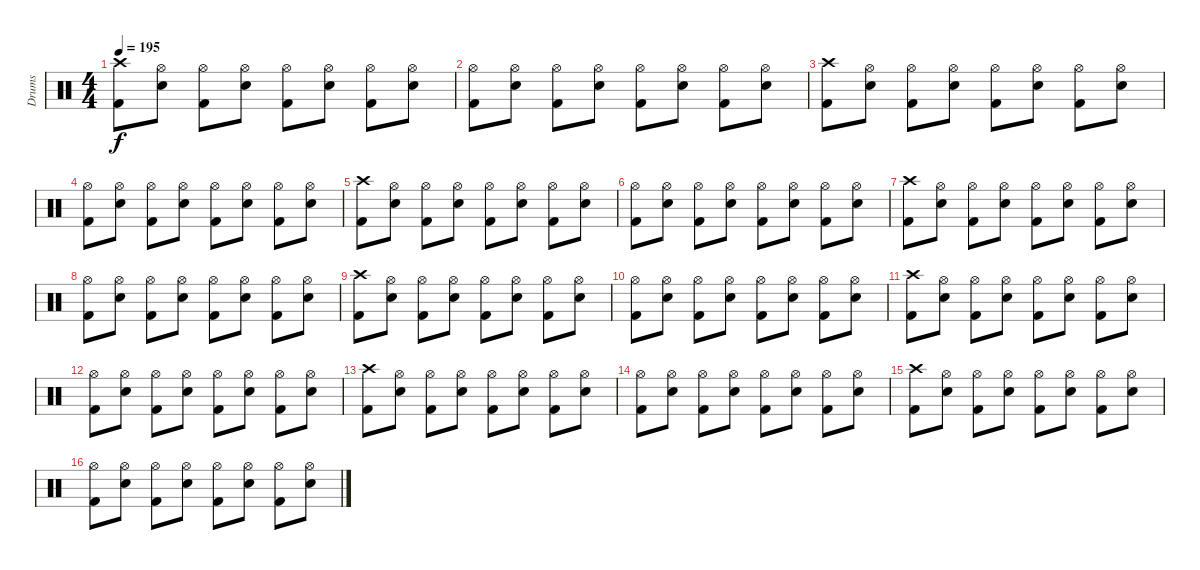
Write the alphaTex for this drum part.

\track ("Drums" "Drums") {instrument percussion}
\staff {score}
\articulation defaults
\ts (4 4)
\tempo 195
\clef neutral
\ks c
("Crash high (hit)" "Kick (hit) 2").8{dy f} ("Hi-Hat (open)" "Snare (hit) 2").8 ("Hi-Hat (open)" "Kick (hit) 2").8 ("Hi-Hat (open)" "Snare (hit) 2").8 ("Hi-Hat (open)" "Kick (hit) 2").8 ("Hi-Hat (open)" "Snare (hit) 2").8 ("Hi-Hat (open)" "Kick (hit) 2").8 ("Hi-Hat (open)" "Snare (hit) 2").8 |
("Hi-Hat (open)" "Kick (hit) 2").8 ("Hi-Hat (open)" "Snare (hit) 2").8 ("Hi-Hat (open)" "Kick (hit) 2").8 ("Hi-Hat (open)" "Snare (hit) 2").8 ("Hi-Hat (open)" "Kick (hit) 2").8 ("Hi-Hat (open)" "Snare (hit) 2").8 ("Hi-Hat (open)" "Kick (hit) 2").8 ("Hi-Hat (open)" "Snare (hit) 2").8 |
("Crash high (hit)" "Kick (hit) 2").8 ("Hi-Hat (open)" "Snare (hit) 2").8 ("Hi-Hat (open)" "Kick (hit) 2").8 ("Hi-Hat (open)" "Snare (hit) 2").8 ("Hi-Hat (open)" "Kick (hit) 2").8 ("Hi-Hat (open)" "Snare (hit) 2").8 ("Hi-Hat (open)" "Kick (hit) 2").8 ("Hi-Hat (open)" "Snare (hit) 2").8 |
("Hi-Hat (open)" "Kick (hit) 2").8 ("Hi-Hat (open)" "Snare (hit) 2").8 ("Hi-Hat (open)" "Kick (hit) 2").8 ("Hi-Hat (open)" "Snare (hit) 2").8 ("Hi-Hat (open)" "Kick (hit) 2").8 ("Hi-Hat (open)" "Snare (hit) 2").8 ("Hi-Hat (open)" "Kick (hit) 2").8 ("Hi-Hat (open)" "Snare (hit) 2").8 |
("Crash high (hit)" "Kick (hit) 2").8 ("Hi-Hat (open)" "Snare (hit) 2").8 ("Hi-Hat (open)" "Kick (hit) 2").8 ("Hi-Hat (open)" "Snare (hit) 2").8 ("Hi-Hat (open)" "Kick (hit) 2").8 ("Hi-Hat (open)" "Snare (hit) 2").8 ("Hi-Hat (open)" "Kick (hit) 2").8 ("Hi-Hat (open)" "Snare (hit) 2").8 |
("Hi-Hat (open)" "Kick (hit) 2").8 ("Hi-Hat (open)" "Snare (hit) 2").8 ("Hi-Hat (open)" "Kick (hit) 2").8 ("Hi-Hat (open)" "Snare (hit) 2").8 ("Hi-Hat (open)" "Kick (hit) 2").8 ("Hi-Hat (open)" "Snare (hit) 2").8 ("Hi-Hat (open)" "Kick (hit) 2").8 ("Hi-Hat (open)" "Snare (hit) 2").8 |
("Crash high (hit)" "Kick (hit) 2").8 ("Hi-Hat (open)" "Snare (hit) 2").8 ("Hi-Hat (open)" "Kick (hit) 2").8 ("Hi-Hat (open)" "Snare (hit) 2").8 ("Hi-Hat (open)" "Kick (hit) 2").8 ("Hi-Hat (open)" "Snare (hit) 2").8 ("Hi-Hat (open)" "Kick (hit) 2").8 ("Hi-Hat (open)" "Snare (hit) 2").8 |
("Hi-Hat (open)" "Kick (hit) 2").8 ("Hi-Hat (open)" "Snare (hit) 2").8 ("Hi-Hat (open)" "Kick (hit) 2").8 ("Hi-Hat (open)" "Snare (hit) 2").8 ("Hi-Hat (open)" "Kick (hit) 2").8 ("Hi-Hat (open)" "Snare (hit) 2").8 ("Hi-Hat (open)" "Kick (hit) 2").8 ("Hi-Hat (open)" "Snare (hit) 2").8 |
("Crash high (hit)" "Kick (hit) 2").8 ("Hi-Hat (open)" "Snare (hit) 2").8 ("Hi-Hat (open)" "Kick (hit) 2").8 ("Hi-Hat (open)" "Snare (hit) 2").8 ("Hi-Hat (open)" "Kick (hit) 2").8 ("Hi-Hat (open)" "Snare (hit) 2").8 ("Hi-Hat (open)" "Kick (hit) 2").8 ("Hi-Hat (open)" "Snare (hit) 2").8 |
("Hi-Hat (open)" "Kick (hit) 2").8 ("Hi-Hat (open)" "Snare (hit) 2").8 ("Hi-Hat (open)" "Kick (hit) 2").8 ("Hi-Hat (open)" "Snare (hit) 2").8 ("Hi-Hat (open)" "Kick (hit) 2").8 ("Hi-Hat (open)" "Snare (hit) 2").8 ("Hi-Hat (open)" "Kick (hit) 2").8 ("Hi-Hat (open)" "Snare (hit) 2").8 |
("Crash high (hit)" "Kick (hit) 2").8 ("Hi-Hat (open)" "Snare (hit) 2").8 ("Hi-Hat (open)" "Kick (hit) 2").8 ("Hi-Hat (open)" "Snare (hit) 2").8 ("Hi-Hat (open)" "Kick (hit) 2").8 ("Hi-Hat (open)" "Snare (hit) 2").8 ("Hi-Hat (open)" "Kick (hit) 2").8 ("Hi-Hat (open)" "Snare (hit) 2").8 |
("Hi-Hat (open)" "Kick (hit) 2").8 ("Hi-Hat (open)" "Snare (hit) 2").8 ("Hi-Hat (open)" "Kick (hit) 2").8 ("Hi-Hat (open)" "Snare (hit) 2").8 ("Hi-Hat (open)" "Kick (hit) 2").8 ("Hi-Hat (open)" "Snare (hit) 2").8 ("Hi-Hat (open)" "Kick (hit) 2").8 ("Hi-Hat (open)" "Snare (hit) 2").8 |
("Crash high (hit)" "Kick (hit) 2").8 ("Hi-Hat (open)" "Snare (hit) 2").8 ("Hi-Hat (open)" "Kick (hit) 2").8 ("Hi-Hat (open)" "Snare (hit) 2").8 ("Hi-Hat (open)" "Kick (hit) 2").8 ("Hi-Hat (open)" "Snare (hit) 2").8 ("Hi-Hat (open)" "Kick (hit) 2").8 ("Hi-Hat (open)" "Snare (hit) 2").8 |
("Hi-Hat (open)" "Kick (hit) 2").8 ("Hi-Hat (open)" "Snare (hit) 2").8 ("Hi-Hat (open)" "Kick (hit) 2").8 ("Hi-Hat (open)" "Snare (hit) 2").8 ("Hi-Hat (open)" "Kick (hit) 2").8 ("Hi-Hat (open)" "Snare (hit) 2").8 ("Hi-Hat (open)" "Kick (hit) 2").8 ("Hi-Hat (open)" "Snare (hit) 2").8 |
("Crash high (hit)" "Kick (hit) 2").8 ("Hi-Hat (open)" "Snare (hit) 2").8 ("Hi-Hat (open)" "Kick (hit) 2").8 ("Hi-Hat (open)" "Snare (hit) 2").8 ("Hi-Hat (open)" "Kick (hit) 2").8 ("Hi-Hat (open)" "Snare (hit) 2").8 ("Hi-Hat (open)" "Kick (hit) 2").8 ("Hi-Hat (open)" "Snare (hit) 2").8 |
("Hi-Hat (open)" "Kick (hit) 2").8 ("Hi-Hat (open)" "Snare (hit) 2").8 ("Hi-Hat (open)" "Kick (hit) 2").8 ("Hi-Hat (open)" "Snare (hit) 2").8 ("Hi-Hat (open)" "Kick (hit) 2").8 ("Hi-Hat (open)" "Snare (hit) 2").8 ("Hi-Hat (open)" "Kick (hit) 2").8 ("Hi-Hat (open)" "Snare (hit) 2").8
